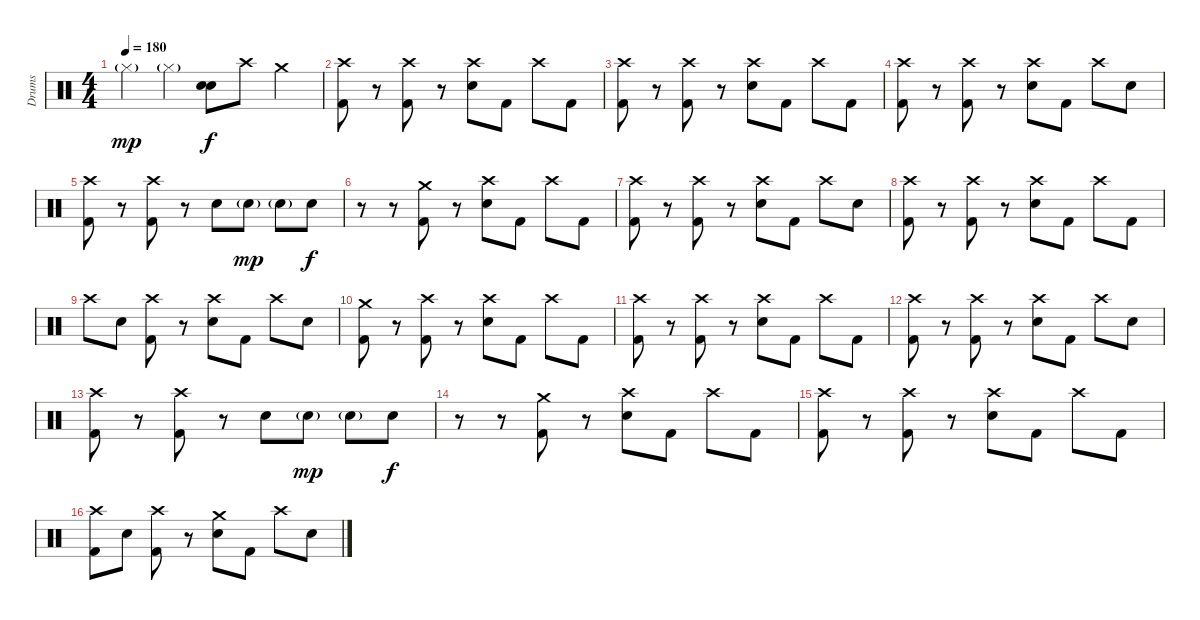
\track ("Drums" "Drums") {instrument percussion}
\staff {score}
\articulation defaults
\ts (4 4)
\tempo 180
\clef neutral
\ks c "Hi-Hat (closed)"{g}.4{dy mp} "Hi-Hat (closed)"{g}.4
("Snare (hit) 2" "Snare (hit) 2").8{dy f} "Crash high (hit)".8 "Crash medium (hit)".4 |
("Crash high (hit)" "Kick (hit) 2").8 r.8 ("Crash high (hit)" "Kick (hit) 2").8 r.8 ("Crash high (hit)" "Snare (hit) 2").8 "Kick (hit) 2".8 "Crash high (hit)".8 "Kick (hit) 2".8 |
("Crash high (hit)" "Kick (hit) 2").8 r.8 ("Crash high (hit)" "Kick (hit) 2").8 r.8 ("Crash high (hit)" "Snare (hit) 2").8 "Kick (hit) 2".8 "Crash high (hit)".8 "Kick (hit) 2".8 |
("Crash high (hit)" "Kick (hit) 2").8 r.8 ("Crash high (hit)" "Kick (hit) 2").8 r.8 ("Crash high (hit)" "Snare (hit) 2").8 "Kick (hit) 2".8 "Crash high (hit)".8 "Snare (hit) 2".8 |
("Crash high (hit)" "Kick (hit) 2").8 r.8 ("Crash high (hit)" "Kick (hit) 2").8 r.8 "Snare (hit) 2".8 "Snare (hit) 2"{g}.8{dy mp} "Snare (hit) 2"{g}.8 "Snare (hit) 2".8{dy f} |
r.8 r.8 ("Crash medium (hit)" "Kick (hit) 2").8 r.8 ("Crash high (hit)" "Snare (hit) 2").8 "Kick (hit) 2".8 "Crash high (hit)".8 "Kick (hit) 2".8 |
("Crash high (hit)" "Kick (hit) 2").8 r.8 ("Crash high (hit)" "Kick (hit) 2").8 r.8 ("Crash high (hit)" "Snare (hit) 2").8 "Kick (hit) 2".8 "Crash high (hit)".8 "Snare (hit) 2".8 |
("Crash high (hit)" "Kick (hit) 2").8 r.8 ("Crash high (hit)" "Kick (hit) 2").8 r.8 ("Crash high (hit)" "Snare (hit) 2").8 "Kick (hit) 2".8 "Crash high (hit)".8 "Kick (hit) 2".8 |
"Crash high (hit)".8 "Snare (hit) 2".8 ("Crash high (hit)" "Kick (hit) 2").8 r.8 ("Crash high (hit)" "Snare (hit) 2").8 "Kick (hit) 2".8 "Crash high (hit)".8 "Snare (hit) 2".8 |
("Crash medium (hit)" "Kick (hit) 2").8 r.8 ("Crash high (hit)" "Kick (hit) 2").8 r.8 ("Crash high (hit)" "Snare (hit) 2").8 "Kick (hit) 2".8 "Crash high (hit)".8 "Kick (hit) 2".8 |
("Crash high (hit)" "Kick (hit) 2").8 r.8 ("Crash high (hit)" "Kick (hit) 2").8 r.8 ("Crash high (hit)" "Snare (hit) 2").8 "Kick (hit) 2".8 "Crash high (hit)".8 "Kick (hit) 2".8 |
("Crash high (hit)" "Kick (hit) 2").8 r.8 ("Crash high (hit)" "Kick (hit) 2").8 r.8 ("Crash high (hit)" "Snare (hit) 2").8 "Kick (hit) 2".8 "Crash high (hit)".8 "Snare (hit) 2".8 |
("Crash high (hit)" "Kick (hit) 2").8 r.8 ("Crash high (hit)" "Kick (hit) 2").8 r.8 "Snare (hit) 2".8 "Snare (hit) 2"{g}.8{dy mp} "Snare (hit) 2"{g}.8 "Snare (hit) 2".8{dy f} |
r.8 r.8 ("Crash medium (hit)" "Kick (hit) 2").8 r.8 ("Crash high (hit)" "Snare (hit) 2").8 "Kick (hit) 2".8 "Crash high (hit)".8 "Kick (hit) 2".8 |
("Crash high (hit)" "Kick (hit) 2").8 r.8 ("Crash high (hit)" "Kick (hit) 2").8 r.8 ("Crash high (hit)" "Snare (hit) 2").8 "Kick (hit) 2".8 "Crash high (hit)".8 "Kick (hit) 2".8 |
("Crash high (hit)" "Kick (hit) 2").8 "Snare (hit) 2".8 ("Crash high (hit)" "Kick (hit) 2").8 r.8 ("Crash medium (hit)" "Snare (hit) 2").8 "Kick (hit) 2".8 "Crash high (hit)".8 "Snare (hit) 2".8
